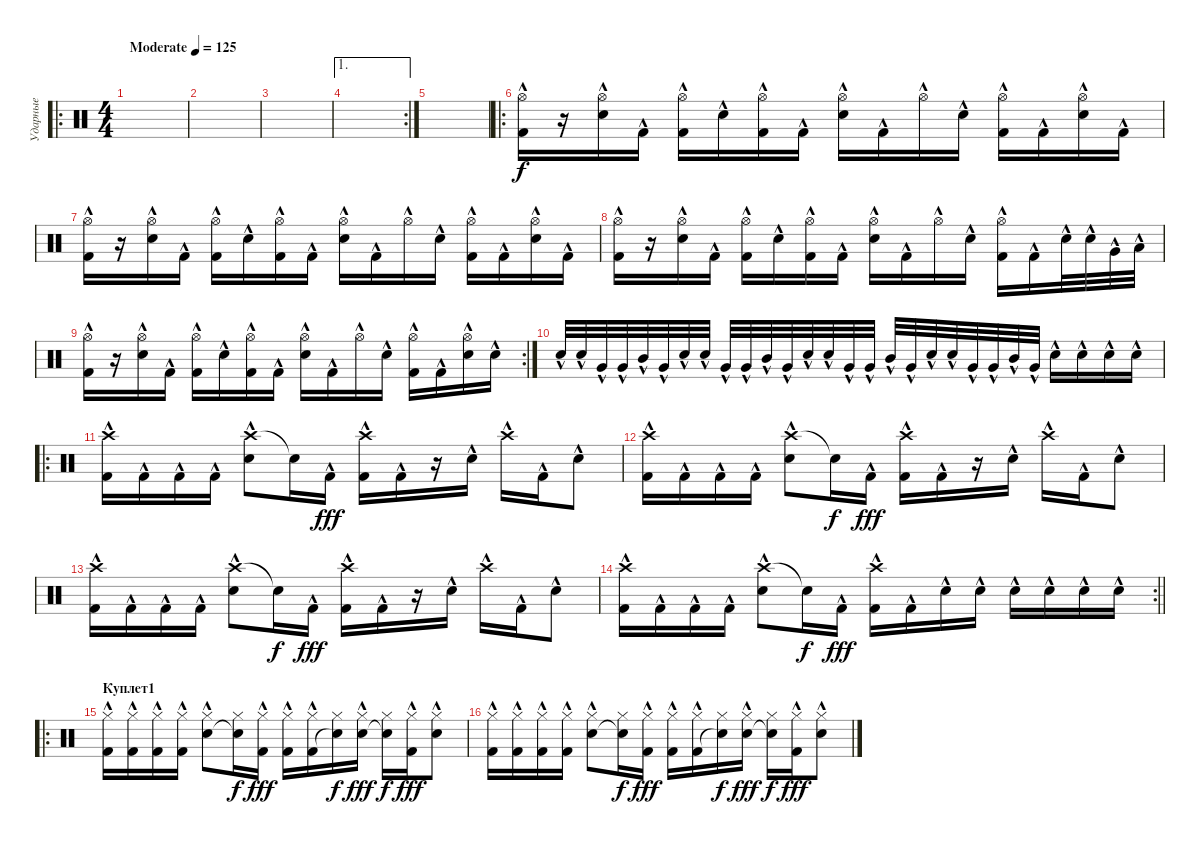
\track ("Ударные" "Ударные") {instrument percussion}
\staff {score}
\articulation defaults
\ro
\ts (4 4)
\tempo (125 "Moderate")
\clef neutral
\ks c
|
|
|
\ae 1
\rc 2
|
|
\ro
("Hi-Hat (open)"{hac} "Kick (hit) 2"{hac}).16 r.16 ("Hi-Hat (open)"{hac} "Electric Snare (hit)"{hac}).16 "Kick (hit) 2"{hac}.16 ("Hi-Hat (open)"{hac} "Kick (hit) 2"{hac}).16 "Electric Snare (hit)"{hac}.16 ("Hi-Hat (open)"{hac} "Kick (hit) 2"{hac}).16 "Kick (hit) 2"{hac}.16 ("Hi-Hat (open)"{hac} "Electric Snare (hit)"{hac}).16 "Kick (hit) 2"{hac}.16 "Hi-Hat (open)"{hac}.16 "Electric Snare (hit)"{hac}.16 ("Hi-Hat (open)"{hac} "Kick (hit) 2"{hac}).16 "Kick (hit) 2"{hac}.16 ("Hi-Hat (open)"{hac} "Electric Snare (hit)"{hac}).16 "Kick (hit) 2"{hac}.16 |
("Hi-Hat (open)"{hac} "Kick (hit) 2"{hac}).16 r.16 ("Hi-Hat (open)"{hac} "Electric Snare (hit)"{hac}).16 "Kick (hit) 2"{hac}.16 ("Hi-Hat (open)"{hac} "Kick (hit) 2"{hac}).16 "Electric Snare (hit)"{hac}.16 ("Hi-Hat (open)"{hac} "Kick (hit) 2"{hac}).16 "Kick (hit) 2"{hac}.16 ("Hi-Hat (open)"{hac} "Electric Snare (hit)"{hac}).16 "Kick (hit) 2"{hac}.16 "Hi-Hat (open)"{hac}.16 "Electric Snare (hit)"{hac}.16 ("Hi-Hat (open)"{hac} "Kick (hit) 2"{hac}).16 "Kick (hit) 2"{hac}.16 ("Hi-Hat (open)"{hac} "Electric Snare (hit)"{hac}).16 "Kick (hit) 2"{hac}.16 |
("Hi-Hat (open)"{hac} "Kick (hit) 2"{hac}).16 r.16 ("Hi-Hat (open)"{hac} "Electric Snare (hit)"{hac}).16 "Kick (hit) 2"{hac}.16 ("Hi-Hat (open)"{hac} "Kick (hit) 2"{hac}).16 "Electric Snare (hit)"{hac}.16 ("Hi-Hat (open)"{hac} "Kick (hit) 2"{hac}).16 "Kick (hit) 2"{hac}.16 ("Hi-Hat (open)"{hac} "Electric Snare (hit)"{hac}).16 "Kick (hit) 2"{hac}.16 "Hi-Hat (open)"{hac}.16 "Electric Snare (hit)"{hac}.16 ("Hi-Hat (open)"{hac} "Kick (hit) 2"{hac}).16 "Kick (hit) 2"{hac}.16 "Electric Snare (hit)"{hac}.32 "Electric Snare (hit)"{hac}.32 "Very Low Tom (hit)"{hac}.32 "Low Tom (hit)"{hac}.32 |
\rc 2
("Hi-Hat (open)"{hac} "Kick (hit) 2"{hac}).16 r.16 ("Hi-Hat (open)"{hac} "Electric Snare (hit)"{hac}).16 "Kick (hit) 2"{hac}.16 ("Hi-Hat (open)"{hac} "Kick (hit) 2"{hac}).16 "Electric Snare (hit)"{hac}.16 ("Hi-Hat (open)"{hac} "Kick (hit) 2"{hac}).16 "Kick (hit) 2"{hac}.16 ("Hi-Hat (open)"{hac} "Electric Snare (hit)"{hac}).16 "Kick (hit) 2"{hac}.16 "Hi-Hat (open)"{hac}.16 "Electric Snare (hit)"{hac}.16 ("Hi-Hat (open)"{hac} "Kick (hit) 2"{hac}).16 "Kick (hit) 2"{hac}.16 ("Hi-Hat (open)"{hac} "Electric Snare (hit)"{hac}).16 "Electric Snare (hit)"{hac}.16 |
"Electric Snare (hit)"{hac}.32 "Electric Snare (hit)"{hac}.32 "Very Low Tom (hit)"{hac}.32 "Very Low Tom (hit)"{hac}.32 "Mid Tom (hit)"{hac}.32 "Very Low Tom (hit)"{hac}.32 "Electric Snare (hit)"{hac}.32 "Electric Snare (hit)"{hac}.32 "Very Low Tom (hit)"{hac}.32 "Very Low Tom (hit)"{hac}.32 "Mid Tom (hit)"{hac}.32 "Very Low Tom (hit)"{hac}.32 "Electric Snare (hit)"{hac}.32 "Electric Snare (hit)"{hac}.32 "Very Low Tom (hit)"{hac}.32 "Very Low Tom (hit)"{hac}.32 "Mid Tom (hit)"{hac}.32 "Very Low Tom (hit)"{hac}.32 "Electric Snare (hit)"{hac}.32 "Electric Snare (hit)"{hac}.32 "Very Low Tom (hit)"{hac}.32 "Very Low Tom (hit)"{hac}.32 "Mid Tom (hit)"{hac}.32 "Very Low Tom (hit)"{hac}.32 "Electric Snare (hit)"{hac}.16 "Electric Snare (hit)"{hac}.16 "Electric Snare (hit)"{hac}.16 "Electric Snare (hit)"{hac}.16 |
\ro
("Crash high (hit)"{hac} "Kick (hit) 2"{hac}).16 "Kick (hit) 2"{hac}.16 "Kick (hit) 2"{hac}.16 "Kick (hit) 2"{hac}.16 ("Crash high (hit)"{hac} "Electric Snare (hit)"{hac}).8 "Snare (hit)"{t}.16{dy f} "Kick (hit) 2"{hac}.16{dy fff} ("Crash high (hit)"{hac} "Kick (hit) 2"{hac}).16 "Kick (hit) 2"{hac}.16 r.16 "Electric Snare (hit)"{hac}.16 "Crash high (hit)"{hac}.16 "Kick (hit) 2"{hac}.16 "Electric Snare (hit)"{hac}.8 |
("Crash high (hit)"{hac} "Kick (hit) 2"{hac}).16 "Kick (hit) 2"{hac}.16 "Kick (hit) 2"{hac}.16 "Kick (hit) 2"{hac}.16 ("Crash high (hit)"{hac} "Electric Snare (hit)"{hac}).8 "Snare (hit)"{t}.16{dy f} "Kick (hit) 2"{hac}.16{dy fff} ("Crash high (hit)"{hac} "Kick (hit) 2"{hac}).16 "Kick (hit) 2"{hac}.16 r.16 "Electric Snare (hit)"{hac}.16 "Crash high (hit)"{hac}.16 "Kick (hit) 2"{hac}.16 "Electric Snare (hit)"{hac}.8 |
("Crash high (hit)"{hac} "Kick (hit) 2"{hac}).16 "Kick (hit) 2"{hac}.16 "Kick (hit) 2"{hac}.16 "Kick (hit) 2"{hac}.16 ("Crash high (hit)"{hac} "Electric Snare (hit)"{hac}).8 "Snare (hit)"{t}.16{dy f} "Kick (hit) 2"{hac}.16{dy fff} ("Crash high (hit)"{hac} "Kick (hit) 2"{hac}).16 "Kick (hit) 2"{hac}.16 r.16 "Electric Snare (hit)"{hac}.16 "Crash high (hit)"{hac}.16 "Kick (hit) 2"{hac}.16 "Electric Snare (hit)"{hac}.8 |
\rc 2
\barLineRight lightlight
("Crash high (hit)"{hac} "Kick (hit) 2"{hac}).16 "Kick (hit) 2"{hac}.16 "Kick (hit) 2"{hac}.16 "Kick (hit) 2"{hac}.16 ("Crash high (hit)"{hac} "Electric Snare (hit)"{hac}).8 "Snare (hit)"{t}.16{dy f} "Kick (hit) 2"{hac}.16{dy fff} ("Crash high (hit)"{hac} "Kick (hit) 2"{hac}).16 "Kick (hit) 2"{hac}.16 "Electric Snare (hit)"{hac}.16 "Electric Snare (hit)"{hac}.16 "Electric Snare (hit)"{hac}.16 "Electric Snare (hit)"{hac}.16 "Electric Snare (hit)"{hac}.16 "Electric Snare (hit)"{hac}.16 |
\ro
\section ("" "Куплет1")
("Hi-Hat (closed)" "Kick (hit) 2"{hac}).16 ("Hi-Hat (closed)" "Kick (hit) 2"{hac}).16 ("Hi-Hat (closed)" "Kick (hit) 2"{hac}).16 ("Hi-Hat (closed)" "Kick (hit) 2"{hac}).16 ("Hi-Hat (closed)" "Electric Snare (hit)"{hac}).8 ("Hi-Hat (closed)" "Snare (hit)"{t}).16{dy f} ("Hi-Hat (closed)" "Kick (hit) 2"{hac}).16{dy fff} ("Hi-Hat (closed)" "Kick (hit) 2"{hac}).16 ("Hi-Hat (closed)" "Kick (hit) 2"{hac}).16 ("Hi-Hat (closed)" "Snare (hit)"{t}).16{dy f} ("Hi-Hat (closed)" "Electric Snare (hit)"{hac}).16{dy fff} ("Hi-Hat (closed)" "Snare (hit)"{t}).16{dy f} ("Hi-Hat (closed)" "Kick (hit) 2"{hac}).16{dy fff} ("Hi-Hat (closed)" "Electric Snare (hit)"{hac}).8 |
("Hi-Hat (closed)" "Kick (hit) 2"{hac}).16 ("Hi-Hat (closed)" "Kick (hit) 2"{hac}).16 ("Hi-Hat (closed)" "Kick (hit) 2"{hac}).16 ("Hi-Hat (closed)" "Kick (hit) 2"{hac}).16 ("Hi-Hat (closed)" "Electric Snare (hit)"{hac}).8 ("Hi-Hat (closed)" "Snare (hit)"{t}).16{dy f} ("Hi-Hat (closed)" "Kick (hit) 2"{hac}).16{dy fff} ("Hi-Hat (closed)" "Kick (hit) 2"{hac}).16 ("Hi-Hat (closed)" "Kick (hit) 2"{hac}).16 ("Hi-Hat (closed)" "Snare (hit)"{t}).16{dy f} ("Hi-Hat (closed)" "Electric Snare (hit)"{hac}).16{dy fff} ("Hi-Hat (closed)" "Snare (hit)"{t}).16{dy f} ("Hi-Hat (closed)" "Kick (hit) 2"{hac}).16{dy fff} ("Hi-Hat (closed)" "Electric Snare (hit)"{hac}).8
